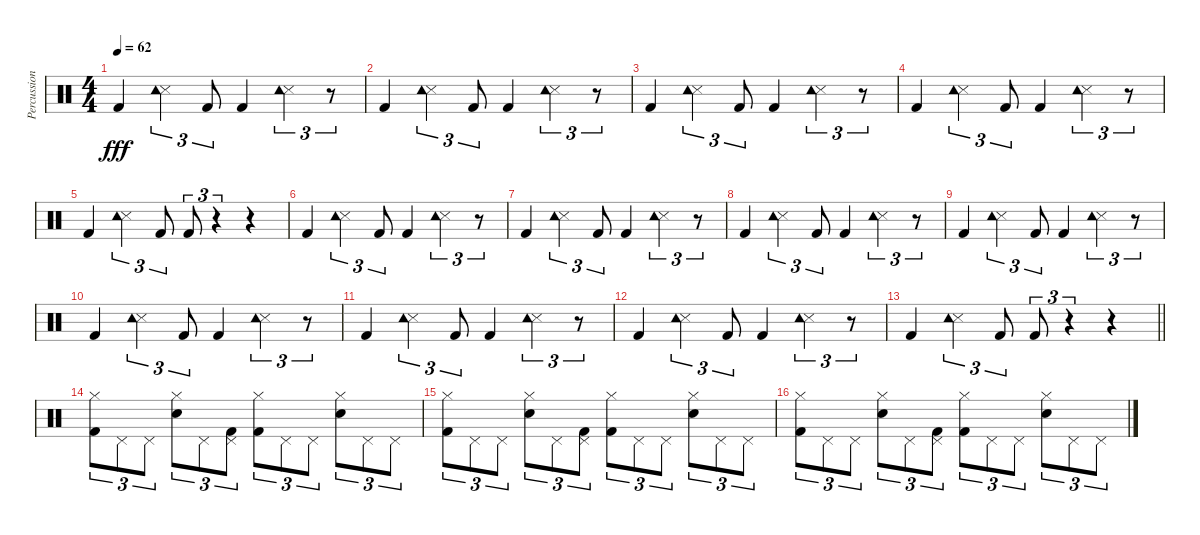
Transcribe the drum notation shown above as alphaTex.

\track ("Percussion" "Percussion") {instrument percussion}
\staff {score}
\articulation defaults
\ts (4 4)
\tempo 62
\clef neutral
\ks c "Kick (hit) 2".4{dy fff}
("Snare (side stick) 3" "Tambourine (hit)").4{tu (3 2)} "Kick (hit) 2".8{tu (3 2)} "Kick (hit) 2".4 ("Snare (side stick) 3" "Tambourine (hit)").4{tu (3 2)} r.8{tu (3 2)} |
"Kick (hit) 2".4 ("Snare (side stick) 3" "Tambourine (hit)").4{tu (3 2)} "Kick (hit) 2".8{tu (3 2)} "Kick (hit) 2".4 ("Snare (side stick) 3" "Tambourine (hit)").4{tu (3 2)} r.8{tu (3 2)} |
"Kick (hit) 2".4 ("Snare (side stick) 3" "Tambourine (hit)").4{tu (3 2)} "Kick (hit) 2".8{tu (3 2)} "Kick (hit) 2".4 ("Snare (side stick) 3" "Tambourine (hit)").4{tu (3 2)} r.8{tu (3 2)} |
"Kick (hit) 2".4 ("Snare (side stick) 3" "Tambourine (hit)").4{tu (3 2)} "Kick (hit) 2".8{tu (3 2)} "Kick (hit) 2".4 ("Snare (side stick) 3" "Tambourine (hit)").4{tu (3 2)} r.8{tu (3 2)} |
"Kick (hit) 2".4 ("Snare (side stick) 3" "Tambourine (hit)").4{tu (3 2)} "Kick (hit) 2".8{tu (3 2)} "Kick (hit) 2".8{tu (3 2)} r.4{tu (3 2)} r.4 |
"Kick (hit) 2".4 ("Snare (side stick) 3" "Tambourine (hit)").4{tu (3 2)} "Kick (hit) 2".8{tu (3 2)} "Kick (hit) 2".4 ("Snare (side stick) 3" "Tambourine (hit)").4{tu (3 2)} r.8{tu (3 2)} |
"Kick (hit) 2".4 ("Snare (side stick) 3" "Tambourine (hit)").4{tu (3 2)} "Kick (hit) 2".8{tu (3 2)} "Kick (hit) 2".4 ("Snare (side stick) 3" "Tambourine (hit)").4{tu (3 2)} r.8{tu (3 2)} |
"Kick (hit) 2".4 ("Snare (side stick) 3" "Tambourine (hit)").4{tu (3 2)} "Kick (hit) 2".8{tu (3 2)} "Kick (hit) 2".4 ("Snare (side stick) 3" "Tambourine (hit)").4{tu (3 2)} r.8{tu (3 2)} |
"Kick (hit) 2".4 ("Snare (side stick) 3" "Tambourine (hit)").4{tu (3 2)} "Kick (hit) 2".8{tu (3 2)} "Kick (hit) 2".4 ("Snare (side stick) 3" "Tambourine (hit)").4{tu (3 2)} r.8{tu (3 2)} |
"Kick (hit) 2".4 ("Snare (side stick) 3" "Tambourine (hit)").4{tu (3 2)} "Kick (hit) 2".8{tu (3 2)} "Kick (hit) 2".4 ("Snare (side stick) 3" "Tambourine (hit)").4{tu (3 2)} r.8{tu (3 2)} |
"Kick (hit) 2".4 ("Snare (side stick) 3" "Tambourine (hit)").4{tu (3 2)} "Kick (hit) 2".8{tu (3 2)} "Kick (hit) 2".4 ("Snare (side stick) 3" "Tambourine (hit)").4{tu (3 2)} r.8{tu (3 2)} |
"Kick (hit) 2".4 ("Snare (side stick) 3" "Tambourine (hit)").4{tu (3 2)} "Kick (hit) 2".8{tu (3 2)} "Kick (hit) 2".4 ("Snare (side stick) 3" "Tambourine (hit)").4{tu (3 2)} r.8{tu (3 2)} |
\barLineRight lightlight "Kick (hit) 2".4
("Snare (side stick) 3" "Tambourine (hit)").4{tu (3 2)} "Kick (hit) 2".8{tu (3 2)} "Kick (hit) 2".8{tu (3 2)} r.4{tu (3 2)} r.4 |
("Kick (hit) 2" "Hi-Hat (closed)").8{tu (3 2)} "Pedal Hi-Hat (hit)".8{tu (3 2)} "Pedal Hi-Hat (hit)".8{tu (3 2)} ("Snare (hit) 2" "Hi-Hat (closed)").8{tu (3 2)} "Pedal Hi-Hat (hit)".8{tu (3 2)} ("Kick (hit) 2" "Pedal Hi-Hat (hit)").8{tu (3 2)} ("Kick (hit) 2" "Hi-Hat (closed)").8{tu (3 2)} "Pedal Hi-Hat (hit)".8{tu (3 2)} "Pedal Hi-Hat (hit)".8{tu (3 2)} ("Snare (hit) 2" "Hi-Hat (closed)").8{tu (3 2)} "Pedal Hi-Hat (hit)".8{tu (3 2)} "Pedal Hi-Hat (hit)".8{tu (3 2)} |
("Kick (hit) 2" "Hi-Hat (closed)").8{tu (3 2)} "Pedal Hi-Hat (hit)".8{tu (3 2)} "Pedal Hi-Hat (hit)".8{tu (3 2)} ("Snare (hit) 2" "Hi-Hat (closed)").8{tu (3 2)} "Pedal Hi-Hat (hit)".8{tu (3 2)} ("Kick (hit) 2" "Pedal Hi-Hat (hit)").8{tu (3 2)} ("Kick (hit) 2" "Hi-Hat (closed)").8{tu (3 2)} "Pedal Hi-Hat (hit)".8{tu (3 2)} "Pedal Hi-Hat (hit)".8{tu (3 2)} ("Snare (hit) 2" "Hi-Hat (closed)").8{tu (3 2)} "Pedal Hi-Hat (hit)".8{tu (3 2)} "Pedal Hi-Hat (hit)".8{tu (3 2)} |
("Kick (hit) 2" "Hi-Hat (closed)").8{tu (3 2)} "Pedal Hi-Hat (hit)".8{tu (3 2)} "Pedal Hi-Hat (hit)".8{tu (3 2)} ("Snare (hit) 2" "Hi-Hat (closed)").8{tu (3 2)} "Pedal Hi-Hat (hit)".8{tu (3 2)} ("Kick (hit) 2" "Pedal Hi-Hat (hit)").8{tu (3 2)} ("Kick (hit) 2" "Hi-Hat (closed)").8{tu (3 2)} "Pedal Hi-Hat (hit)".8{tu (3 2)} "Pedal Hi-Hat (hit)".8{tu (3 2)} ("Snare (hit) 2" "Hi-Hat (closed)").8{tu (3 2)} "Pedal Hi-Hat (hit)".8{tu (3 2)} "Pedal Hi-Hat (hit)".8{tu (3 2)}
